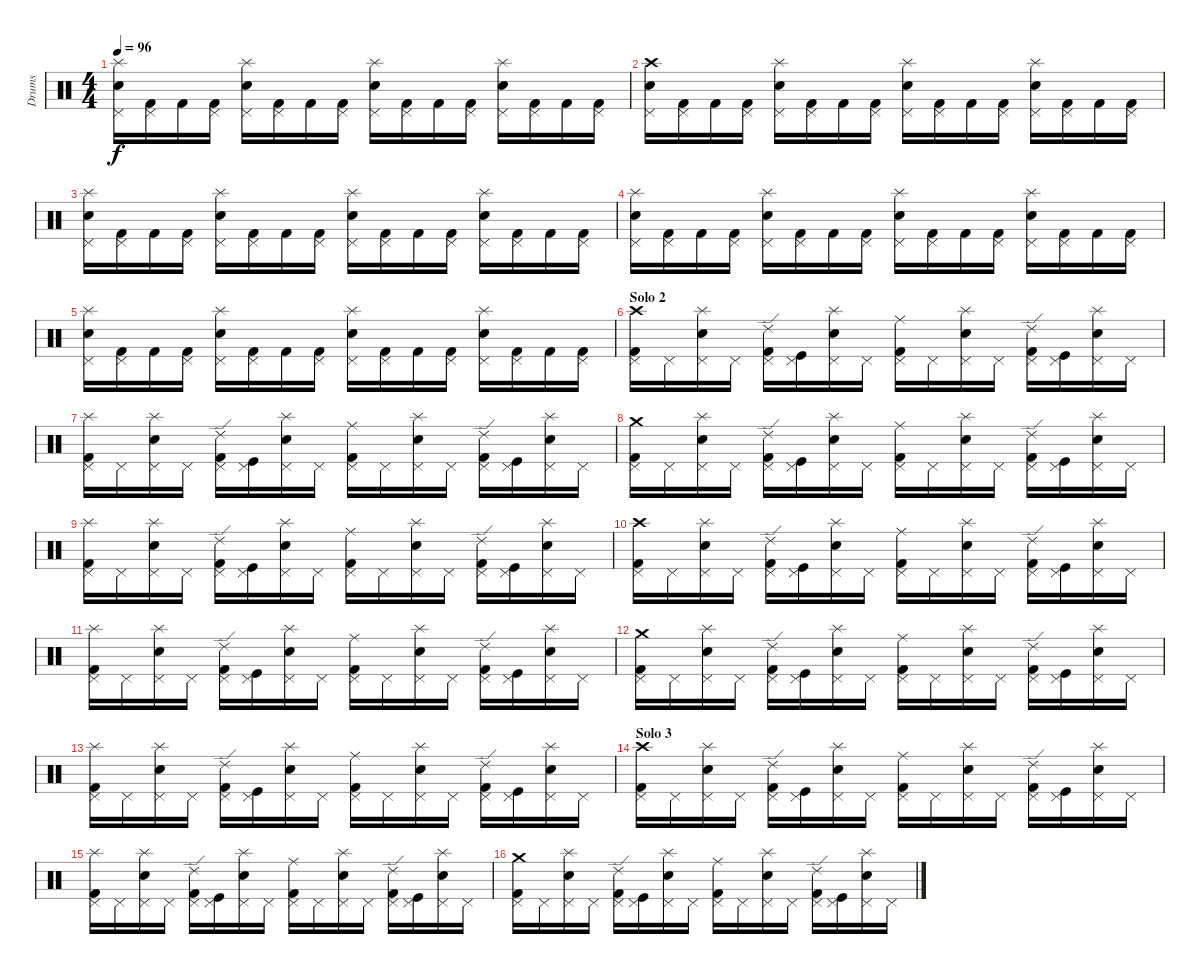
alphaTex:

\track ("Drums" "Drums") {instrument percussion}
\staff {score}
\articulation defaults
\ts (4 4)
\tempo 96
\clef neutral
\ks c
("Snare (hit) 2" "Pedal Hi-Hat (hit)" "Splash (hit)").16{dy f} ("Kick (hit) 2" "Pedal Hi-Hat (hit)").16 "Kick (hit) 2".16 ("Kick (hit) 2" "Pedal Hi-Hat (hit)").16 ("Snare (hit) 2" "Pedal Hi-Hat (hit)" "Splash (hit)").16 ("Kick (hit) 2" "Pedal Hi-Hat (hit)").16 "Kick (hit) 2".16 ("Kick (hit) 2" "Pedal Hi-Hat (hit)").16 ("Snare (hit) 2" "Pedal Hi-Hat (hit)" "Splash (hit)").16 ("Kick (hit) 2" "Pedal Hi-Hat (hit)").16 "Kick (hit) 2".16 ("Kick (hit) 2" "Pedal Hi-Hat (hit)").16 ("Snare (hit) 2" "Pedal Hi-Hat (hit)" "Splash (hit)").16 ("Kick (hit) 2" "Pedal Hi-Hat (hit)").16 "Kick (hit) 2".16 ("Kick (hit) 2" "Pedal Hi-Hat (hit)").16 |
("Snare (hit) 2" "Pedal Hi-Hat (hit)" "Crash high (hit)").16 ("Kick (hit) 2" "Pedal Hi-Hat (hit)").16 "Kick (hit) 2".16 ("Kick (hit) 2" "Pedal Hi-Hat (hit)").16 ("Snare (hit) 2" "Pedal Hi-Hat (hit)" "Splash (hit)").16 ("Kick (hit) 2" "Pedal Hi-Hat (hit)").16 "Kick (hit) 2".16 ("Kick (hit) 2" "Pedal Hi-Hat (hit)").16 ("Snare (hit) 2" "Pedal Hi-Hat (hit)" "Splash (hit)").16 ("Kick (hit) 2" "Pedal Hi-Hat (hit)").16 "Kick (hit) 2".16 ("Kick (hit) 2" "Pedal Hi-Hat (hit)").16 ("Snare (hit) 2" "Pedal Hi-Hat (hit)" "Splash (hit)").16 ("Kick (hit) 2" "Pedal Hi-Hat (hit)").16 "Kick (hit) 2".16 ("Kick (hit) 2" "Pedal Hi-Hat (hit)").16 |
("Snare (hit) 2" "Pedal Hi-Hat (hit)" "Splash (hit)").16 ("Kick (hit) 2" "Pedal Hi-Hat (hit)").16 "Kick (hit) 2".16 ("Kick (hit) 2" "Pedal Hi-Hat (hit)").16 ("Snare (hit) 2" "Pedal Hi-Hat (hit)" "Splash (hit)").16 ("Kick (hit) 2" "Pedal Hi-Hat (hit)").16 "Kick (hit) 2".16 ("Kick (hit) 2" "Pedal Hi-Hat (hit)").16 ("Snare (hit) 2" "Pedal Hi-Hat (hit)" "Splash (hit)").16 ("Kick (hit) 2" "Pedal Hi-Hat (hit)").16 "Kick (hit) 2".16 ("Kick (hit) 2" "Pedal Hi-Hat (hit)").16 ("Snare (hit) 2" "Pedal Hi-Hat (hit)" "Splash (hit)").16 ("Kick (hit) 2" "Pedal Hi-Hat (hit)").16 "Kick (hit) 2".16 ("Kick (hit) 2" "Pedal Hi-Hat (hit)").16 |
("Snare (hit) 2" "Pedal Hi-Hat (hit)" "Splash (hit)").16 ("Kick (hit) 2" "Pedal Hi-Hat (hit)").16 "Kick (hit) 2".16 ("Kick (hit) 2" "Pedal Hi-Hat (hit)").16 ("Snare (hit) 2" "Pedal Hi-Hat (hit)" "Splash (hit)").16 ("Kick (hit) 2" "Pedal Hi-Hat (hit)").16 "Kick (hit) 2".16 ("Kick (hit) 2" "Pedal Hi-Hat (hit)").16 ("Snare (hit) 2" "Pedal Hi-Hat (hit)" "Splash (hit)").16 ("Kick (hit) 2" "Pedal Hi-Hat (hit)").16 "Kick (hit) 2".16 ("Kick (hit) 2" "Pedal Hi-Hat (hit)").16 ("Snare (hit) 2" "Pedal Hi-Hat (hit)" "Splash (hit)").16 ("Kick (hit) 2" "Pedal Hi-Hat (hit)").16 "Kick (hit) 2".16 ("Kick (hit) 2" "Pedal Hi-Hat (hit)").16 |
("Snare (hit) 2" "Pedal Hi-Hat (hit)" "Splash (hit)").16 ("Kick (hit) 2" "Pedal Hi-Hat (hit)").16 "Kick (hit) 2".16 ("Kick (hit) 2" "Pedal Hi-Hat (hit)").16 ("Snare (hit) 2" "Pedal Hi-Hat (hit)" "Splash (hit)").16 ("Kick (hit) 2" "Pedal Hi-Hat (hit)").16 "Kick (hit) 2".16 ("Kick (hit) 2" "Pedal Hi-Hat (hit)").16 ("Snare (hit) 2" "Pedal Hi-Hat (hit)" "Splash (hit)").16 ("Kick (hit) 2" "Pedal Hi-Hat (hit)").16 "Kick (hit) 2".16 ("Kick (hit) 2" "Pedal Hi-Hat (hit)").16 ("Snare (hit) 2" "Pedal Hi-Hat (hit)" "Splash (hit)").16 ("Kick (hit) 2" "Pedal Hi-Hat (hit)").16 "Kick (hit) 2".16 ("Kick (hit) 2" "Pedal Hi-Hat (hit)").16 |
\section ("" "Solo 2")
("Kick (hit) 2" "Pedal Hi-Hat (hit)" "Crash high (hit)").16 "Pedal Hi-Hat (hit)".16 ("Snare (hit) 2" "Pedal Hi-Hat (hit)" "Splash (hit)").16 "Pedal Hi-Hat (hit)".16 ("Kick (hit) 2" "Pedal Hi-Hat (hit)" "Ride (edge) 2").16 ("Kick (hit)" "Pedal Hi-Hat (hit)").16 ("Snare (hit) 2" "Pedal Hi-Hat (hit)" "Splash (hit)").16 "Pedal Hi-Hat (hit)".16 ("Kick (hit) 2" "Pedal Hi-Hat (hit)" "Ride (middle)").16 "Pedal Hi-Hat (hit)".16 ("Snare (hit) 2" "Pedal Hi-Hat (hit)" "Splash (hit)").16 "Pedal Hi-Hat (hit)".16 ("Kick (hit) 2" "Pedal Hi-Hat (hit)" "Ride (edge) 2").16 ("Kick (hit)" "Pedal Hi-Hat (hit)").16 ("Snare (hit) 2" "Pedal Hi-Hat (hit)" "Splash (hit)").16 "Pedal Hi-Hat (hit)".16 |
("Kick (hit) 2" "Pedal Hi-Hat (hit)" "Splash (hit)").16 "Pedal Hi-Hat (hit)".16 ("Snare (hit) 2" "Pedal Hi-Hat (hit)" "Splash (hit)").16 "Pedal Hi-Hat (hit)".16 ("Kick (hit) 2" "Pedal Hi-Hat (hit)" "Ride (edge) 2").16 ("Kick (hit)" "Pedal Hi-Hat (hit)").16 ("Snare (hit) 2" "Pedal Hi-Hat (hit)" "Splash (hit)").16 "Pedal Hi-Hat (hit)".16 ("Kick (hit) 2" "Pedal Hi-Hat (hit)" "Ride (middle)").16 "Pedal Hi-Hat (hit)".16 ("Snare (hit) 2" "Pedal Hi-Hat (hit)" "Splash (hit)").16 "Pedal Hi-Hat (hit)".16 ("Kick (hit) 2" "Pedal Hi-Hat (hit)" "Ride (edge) 2").16 ("Kick (hit)" "Pedal Hi-Hat (hit)").16 ("Snare (hit) 2" "Pedal Hi-Hat (hit)" "Splash (hit)").16 "Pedal Hi-Hat (hit)".16 |
("Kick (hit) 2" "Pedal Hi-Hat (hit)" "Crash medium (hit)").16 "Pedal Hi-Hat (hit)".16 ("Snare (hit) 2" "Pedal Hi-Hat (hit)" "Splash (hit)").16 "Pedal Hi-Hat (hit)".16 ("Kick (hit) 2" "Pedal Hi-Hat (hit)" "Ride (edge) 2").16 ("Kick (hit)" "Pedal Hi-Hat (hit)").16 ("Snare (hit) 2" "Pedal Hi-Hat (hit)" "Splash (hit)").16 "Pedal Hi-Hat (hit)".16 ("Kick (hit) 2" "Pedal Hi-Hat (hit)" "Ride (middle)").16 "Pedal Hi-Hat (hit)".16 ("Snare (hit) 2" "Pedal Hi-Hat (hit)" "Splash (hit)").16 "Pedal Hi-Hat (hit)".16 ("Kick (hit) 2" "Pedal Hi-Hat (hit)" "Ride (edge) 2").16 ("Kick (hit)" "Pedal Hi-Hat (hit)").16 ("Snare (hit) 2" "Pedal Hi-Hat (hit)" "Splash (hit)").16 "Pedal Hi-Hat (hit)".16 |
("Kick (hit) 2" "Pedal Hi-Hat (hit)" "Splash (hit)").16 "Pedal Hi-Hat (hit)".16 ("Snare (hit) 2" "Pedal Hi-Hat (hit)" "Splash (hit)").16 "Pedal Hi-Hat (hit)".16 ("Kick (hit) 2" "Pedal Hi-Hat (hit)" "Ride (edge) 2").16 ("Kick (hit)" "Pedal Hi-Hat (hit)").16 ("Snare (hit) 2" "Pedal Hi-Hat (hit)" "Splash (hit)").16 "Pedal Hi-Hat (hit)".16 ("Kick (hit) 2" "Pedal Hi-Hat (hit)" "Ride (middle)").16 "Pedal Hi-Hat (hit)".16 ("Snare (hit) 2" "Pedal Hi-Hat (hit)" "Splash (hit)").16 "Pedal Hi-Hat (hit)".16 ("Kick (hit) 2" "Pedal Hi-Hat (hit)" "Ride (edge) 2").16 ("Kick (hit)" "Pedal Hi-Hat (hit)").16 ("Snare (hit) 2" "Pedal Hi-Hat (hit)" "Splash (hit)").16 "Pedal Hi-Hat (hit)".16 |
("Kick (hit) 2" "Pedal Hi-Hat (hit)" "Crash high (hit)").16 "Pedal Hi-Hat (hit)".16 ("Snare (hit) 2" "Pedal Hi-Hat (hit)" "Splash (hit)").16 "Pedal Hi-Hat (hit)".16 ("Kick (hit) 2" "Pedal Hi-Hat (hit)" "Ride (edge) 2").16 ("Kick (hit)" "Pedal Hi-Hat (hit)").16 ("Snare (hit) 2" "Pedal Hi-Hat (hit)" "Splash (hit)").16 "Pedal Hi-Hat (hit)".16 ("Kick (hit) 2" "Pedal Hi-Hat (hit)" "Ride (middle)").16 "Pedal Hi-Hat (hit)".16 ("Snare (hit) 2" "Pedal Hi-Hat (hit)" "Splash (hit)").16 "Pedal Hi-Hat (hit)".16 ("Kick (hit) 2" "Pedal Hi-Hat (hit)" "Ride (edge) 2").16 ("Kick (hit)" "Pedal Hi-Hat (hit)").16 ("Snare (hit) 2" "Pedal Hi-Hat (hit)" "Splash (hit)").16 "Pedal Hi-Hat (hit)".16 |
("Kick (hit) 2" "Pedal Hi-Hat (hit)" "Splash (hit)").16 "Pedal Hi-Hat (hit)".16 ("Snare (hit) 2" "Pedal Hi-Hat (hit)" "Splash (hit)").16 "Pedal Hi-Hat (hit)".16 ("Kick (hit) 2" "Pedal Hi-Hat (hit)" "Ride (edge) 2").16 ("Kick (hit)" "Pedal Hi-Hat (hit)").16 ("Snare (hit) 2" "Pedal Hi-Hat (hit)" "Splash (hit)").16 "Pedal Hi-Hat (hit)".16 ("Kick (hit) 2" "Pedal Hi-Hat (hit)" "Ride (middle)").16 "Pedal Hi-Hat (hit)".16 ("Snare (hit) 2" "Pedal Hi-Hat (hit)" "Splash (hit)").16 "Pedal Hi-Hat (hit)".16 ("Kick (hit) 2" "Pedal Hi-Hat (hit)" "Ride (edge) 2").16 ("Kick (hit)" "Pedal Hi-Hat (hit)").16 ("Snare (hit) 2" "Pedal Hi-Hat (hit)" "Splash (hit)").16 "Pedal Hi-Hat (hit)".16 |
("Kick (hit) 2" "Pedal Hi-Hat (hit)" "Crash medium (hit)").16 "Pedal Hi-Hat (hit)".16 ("Snare (hit) 2" "Pedal Hi-Hat (hit)" "Splash (hit)").16 "Pedal Hi-Hat (hit)".16 ("Kick (hit) 2" "Pedal Hi-Hat (hit)" "Ride (edge) 2").16 ("Kick (hit)" "Pedal Hi-Hat (hit)").16 ("Snare (hit) 2" "Pedal Hi-Hat (hit)" "Splash (hit)").16 "Pedal Hi-Hat (hit)".16 ("Kick (hit) 2" "Pedal Hi-Hat (hit)" "Ride (middle)").16 "Pedal Hi-Hat (hit)".16 ("Snare (hit) 2" "Pedal Hi-Hat (hit)" "Splash (hit)").16 "Pedal Hi-Hat (hit)".16 ("Kick (hit) 2" "Pedal Hi-Hat (hit)" "Ride (edge) 2").16 ("Kick (hit)" "Pedal Hi-Hat (hit)").16 ("Snare (hit) 2" "Pedal Hi-Hat (hit)" "Splash (hit)").16 "Pedal Hi-Hat (hit)".16 |
("Kick (hit) 2" "Pedal Hi-Hat (hit)" "Splash (hit)").16 "Pedal Hi-Hat (hit)".16 ("Snare (hit) 2" "Pedal Hi-Hat (hit)" "Splash (hit)").16 "Pedal Hi-Hat (hit)".16 ("Kick (hit) 2" "Pedal Hi-Hat (hit)" "Ride (edge) 2").16 ("Kick (hit)" "Pedal Hi-Hat (hit)").16 ("Snare (hit) 2" "Pedal Hi-Hat (hit)" "Splash (hit)").16 "Pedal Hi-Hat (hit)".16 ("Kick (hit) 2" "Pedal Hi-Hat (hit)" "Ride (middle)").16 "Pedal Hi-Hat (hit)".16 ("Snare (hit) 2" "Pedal Hi-Hat (hit)" "Splash (hit)").16 "Pedal Hi-Hat (hit)".16 ("Kick (hit) 2" "Pedal Hi-Hat (hit)" "Ride (edge) 2").16 ("Kick (hit)" "Pedal Hi-Hat (hit)").16 ("Snare (hit) 2" "Pedal Hi-Hat (hit)" "Splash (hit)").16 "Pedal Hi-Hat (hit)".16 |
\section ("" "Solo 3")
("Kick (hit) 2" "Pedal Hi-Hat (hit)" "Crash high (hit)").16 "Pedal Hi-Hat (hit)".16 ("Snare (hit) 2" "Pedal Hi-Hat (hit)" "Splash (hit)").16 "Pedal Hi-Hat (hit)".16 ("Kick (hit) 2" "Pedal Hi-Hat (hit)" "Ride (edge) 2").16 ("Kick (hit)" "Pedal Hi-Hat (hit)").16 ("Snare (hit) 2" "Pedal Hi-Hat (hit)" "Splash (hit)").16 "Pedal Hi-Hat (hit)".16 ("Kick (hit) 2" "Pedal Hi-Hat (hit)" "Ride (middle)").16 "Pedal Hi-Hat (hit)".16 ("Snare (hit) 2" "Pedal Hi-Hat (hit)" "Splash (hit)").16 "Pedal Hi-Hat (hit)".16 ("Kick (hit) 2" "Pedal Hi-Hat (hit)" "Ride (edge) 2").16 ("Kick (hit)" "Pedal Hi-Hat (hit)").16 ("Snare (hit) 2" "Pedal Hi-Hat (hit)" "Splash (hit)").16 "Pedal Hi-Hat (hit)".16 |
("Kick (hit) 2" "Pedal Hi-Hat (hit)" "Splash (hit)").16 "Pedal Hi-Hat (hit)".16 ("Snare (hit) 2" "Pedal Hi-Hat (hit)" "Splash (hit)").16 "Pedal Hi-Hat (hit)".16 ("Kick (hit) 2" "Pedal Hi-Hat (hit)" "Ride (edge) 2").16 ("Kick (hit)" "Pedal Hi-Hat (hit)").16 ("Snare (hit) 2" "Pedal Hi-Hat (hit)" "Splash (hit)").16 "Pedal Hi-Hat (hit)".16 ("Kick (hit) 2" "Pedal Hi-Hat (hit)" "Ride (middle)").16 "Pedal Hi-Hat (hit)".16 ("Snare (hit) 2" "Pedal Hi-Hat (hit)" "Splash (hit)").16 "Pedal Hi-Hat (hit)".16 ("Kick (hit) 2" "Pedal Hi-Hat (hit)" "Ride (edge) 2").16 ("Kick (hit)" "Pedal Hi-Hat (hit)").16 ("Snare (hit) 2" "Pedal Hi-Hat (hit)" "Splash (hit)").16 "Pedal Hi-Hat (hit)".16 |
("Kick (hit) 2" "Pedal Hi-Hat (hit)" "Crash medium (hit)").16 "Pedal Hi-Hat (hit)".16 ("Snare (hit) 2" "Pedal Hi-Hat (hit)" "Splash (hit)").16 "Pedal Hi-Hat (hit)".16 ("Kick (hit) 2" "Pedal Hi-Hat (hit)" "Ride (edge) 2").16 ("Kick (hit)" "Pedal Hi-Hat (hit)").16 ("Snare (hit) 2" "Pedal Hi-Hat (hit)" "Splash (hit)").16 "Pedal Hi-Hat (hit)".16 ("Kick (hit) 2" "Pedal Hi-Hat (hit)" "Ride (middle)").16 "Pedal Hi-Hat (hit)".16 ("Snare (hit) 2" "Pedal Hi-Hat (hit)" "Splash (hit)").16 "Pedal Hi-Hat (hit)".16 ("Kick (hit) 2" "Pedal Hi-Hat (hit)" "Ride (edge) 2").16 ("Kick (hit)" "Pedal Hi-Hat (hit)").16 ("Snare (hit) 2" "Pedal Hi-Hat (hit)" "Splash (hit)").16 "Pedal Hi-Hat (hit)".16
